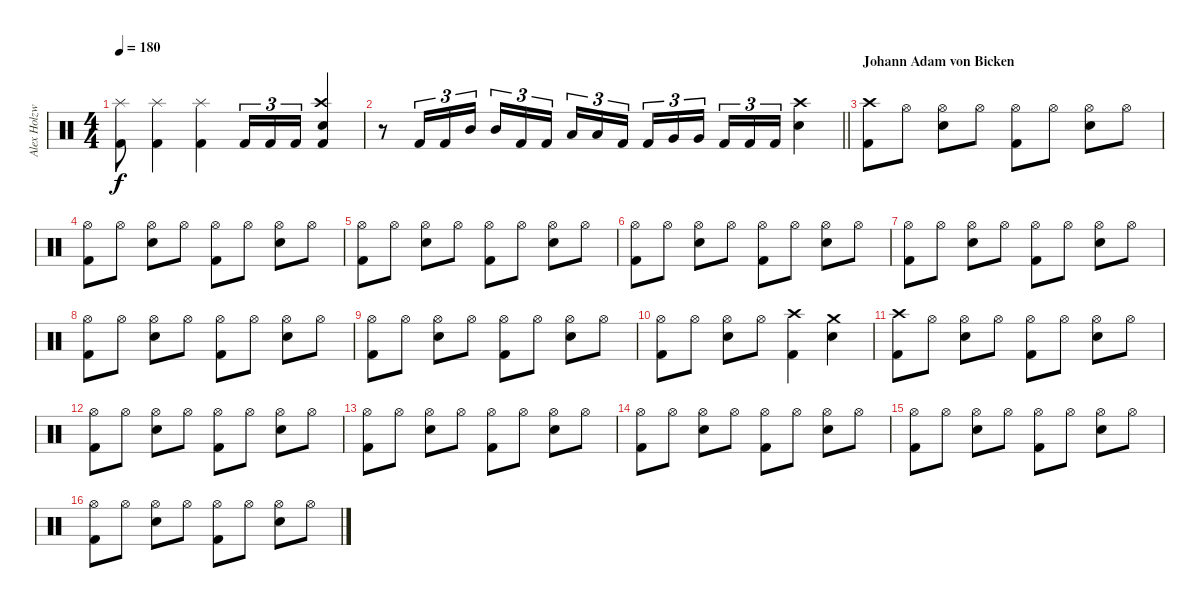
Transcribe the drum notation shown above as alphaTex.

\track ("Alex Holzwarth" "Alex Holzw") {instrument percussion}
\staff {score}
\articulation defaults
\ts (4 4)
\tempo 180
\clef neutral
\ks c
("Splash (hit)" "Kick (hit) 2").8{dy f} ("Splash (hit)" "Kick (hit) 2").4 ("Splash (hit)" "Kick (hit) 2").4 "Kick (hit) 2".16{tu (3 2)} "Kick (hit) 2".16{tu (3 2)} "Kick (hit) 2".16{tu (3 2)} ("Crash high (hit)" "Electric Snare (hit)" "Kick (hit) 2").4 |
\barLineRight lightlight
r.8 "Kick (hit) 2".16{tu (3 2)} "Kick (hit) 2".16{tu (3 2)} "Mid Tom (hit)".16{tu (3 2)} "Mid Tom (hit)".16{tu (3 2)} "Kick (hit) 2".16{tu (3 2)} "Kick (hit) 2".16{tu (3 2) beam splitsecondary} "Low Tom (hit)".16{tu (3 2)} "Low Tom (hit)".16{tu (3 2)} "Kick (hit) 2".16{tu (3 2)} "Kick (hit) 2".16{tu (3 2)} "Very Low Tom (hit)".16{tu (3 2)} "Very Low Tom (hit)".16{tu (3 2) beam splitsecondary} "Kick (hit) 2".16{tu (3 2)} "Kick (hit) 2".16{tu (3 2)} "Kick (hit) 2".16{tu (3 2)} ("Crash high (hit)" "Electric Snare (hit)").4 |
\section ("" "Johann Adam von Bicken")
("Crash high (hit)" "Kick (hit) 2").8 "Hi-Hat (open)".8 ("Hi-Hat (open)" "Electric Snare (hit)").8 "Hi-Hat (open)".8 ("Hi-Hat (open)" "Kick (hit) 2").8 "Hi-Hat (open)".8 ("Hi-Hat (open)" "Electric Snare (hit)").8 "Hi-Hat (open)".8 |
("Hi-Hat (open)" "Kick (hit) 2").8 "Hi-Hat (open)".8 ("Hi-Hat (open)" "Electric Snare (hit)").8 "Hi-Hat (open)".8 ("Hi-Hat (open)" "Kick (hit) 2").8 "Hi-Hat (open)".8 ("Hi-Hat (open)" "Electric Snare (hit)").8 "Hi-Hat (open)".8 |
("Hi-Hat (open)" "Kick (hit) 2").8 "Hi-Hat (open)".8 ("Hi-Hat (open)" "Electric Snare (hit)").8 "Hi-Hat (open)".8 ("Hi-Hat (open)" "Kick (hit) 2").8 "Hi-Hat (open)".8 ("Hi-Hat (open)" "Electric Snare (hit)").8 "Hi-Hat (open)".8 |
("Hi-Hat (open)" "Kick (hit) 2").8 "Hi-Hat (open)".8 ("Hi-Hat (open)" "Electric Snare (hit)").8 "Hi-Hat (open)".8 ("Hi-Hat (open)" "Kick (hit) 2").8 "Hi-Hat (open)".8 ("Hi-Hat (open)" "Electric Snare (hit)").8 "Hi-Hat (open)".8 |
("Hi-Hat (open)" "Kick (hit) 2").8 "Hi-Hat (open)".8 ("Hi-Hat (open)" "Electric Snare (hit)").8 "Hi-Hat (open)".8 ("Hi-Hat (open)" "Kick (hit) 2").8 "Hi-Hat (open)".8 ("Hi-Hat (open)" "Electric Snare (hit)").8 "Hi-Hat (open)".8 |
("Hi-Hat (open)" "Kick (hit) 2").8 "Hi-Hat (open)".8 ("Hi-Hat (open)" "Electric Snare (hit)").8 "Hi-Hat (open)".8 ("Hi-Hat (open)" "Kick (hit) 2").8 "Hi-Hat (open)".8 ("Hi-Hat (open)" "Electric Snare (hit)").8 "Hi-Hat (open)".8 |
("Hi-Hat (open)" "Kick (hit) 2").8 "Hi-Hat (open)".8 ("Hi-Hat (open)" "Electric Snare (hit)").8 "Hi-Hat (open)".8 ("Hi-Hat (open)" "Kick (hit) 2").8 "Hi-Hat (open)".8 ("Hi-Hat (open)" "Electric Snare (hit)").8 "Hi-Hat (open)".8 |
("Hi-Hat (open)" "Kick (hit) 2").8 "Hi-Hat (open)".8 ("Hi-Hat (open)" "Electric Snare (hit)").8 "Hi-Hat (open)".8 ("Crash high (hit)" "Kick (hit) 2").4 ("Crash medium (hit)" "Electric Snare (hit)").4 |
("Crash high (hit)" "Kick (hit) 2").8 "Hi-Hat (open)".8 ("Hi-Hat (open)" "Electric Snare (hit)").8 "Hi-Hat (open)".8 ("Hi-Hat (open)" "Kick (hit) 2").8 "Hi-Hat (open)".8 ("Hi-Hat (open)" "Electric Snare (hit)").8 "Hi-Hat (open)".8 |
("Hi-Hat (open)" "Kick (hit) 2").8 "Hi-Hat (open)".8 ("Hi-Hat (open)" "Electric Snare (hit)").8 "Hi-Hat (open)".8 ("Hi-Hat (open)" "Kick (hit) 2").8 "Hi-Hat (open)".8 ("Hi-Hat (open)" "Electric Snare (hit)").8 "Hi-Hat (open)".8 |
("Hi-Hat (open)" "Kick (hit) 2").8 "Hi-Hat (open)".8 ("Hi-Hat (open)" "Electric Snare (hit)").8 "Hi-Hat (open)".8 ("Hi-Hat (open)" "Kick (hit) 2").8 "Hi-Hat (open)".8 ("Hi-Hat (open)" "Electric Snare (hit)").8 "Hi-Hat (open)".8 |
("Hi-Hat (open)" "Kick (hit) 2").8 "Hi-Hat (open)".8 ("Hi-Hat (open)" "Electric Snare (hit)").8 "Hi-Hat (open)".8 ("Hi-Hat (open)" "Kick (hit) 2").8 "Hi-Hat (open)".8 ("Hi-Hat (open)" "Electric Snare (hit)").8 "Hi-Hat (open)".8 |
("Hi-Hat (open)" "Kick (hit) 2").8 "Hi-Hat (open)".8 ("Hi-Hat (open)" "Electric Snare (hit)").8 "Hi-Hat (open)".8 ("Hi-Hat (open)" "Kick (hit) 2").8 "Hi-Hat (open)".8 ("Hi-Hat (open)" "Electric Snare (hit)").8 "Hi-Hat (open)".8 |
("Hi-Hat (open)" "Kick (hit) 2").8 "Hi-Hat (open)".8 ("Hi-Hat (open)" "Electric Snare (hit)").8 "Hi-Hat (open)".8 ("Hi-Hat (open)" "Kick (hit) 2").8 "Hi-Hat (open)".8 ("Hi-Hat (open)" "Electric Snare (hit)").8 "Hi-Hat (open)".8
